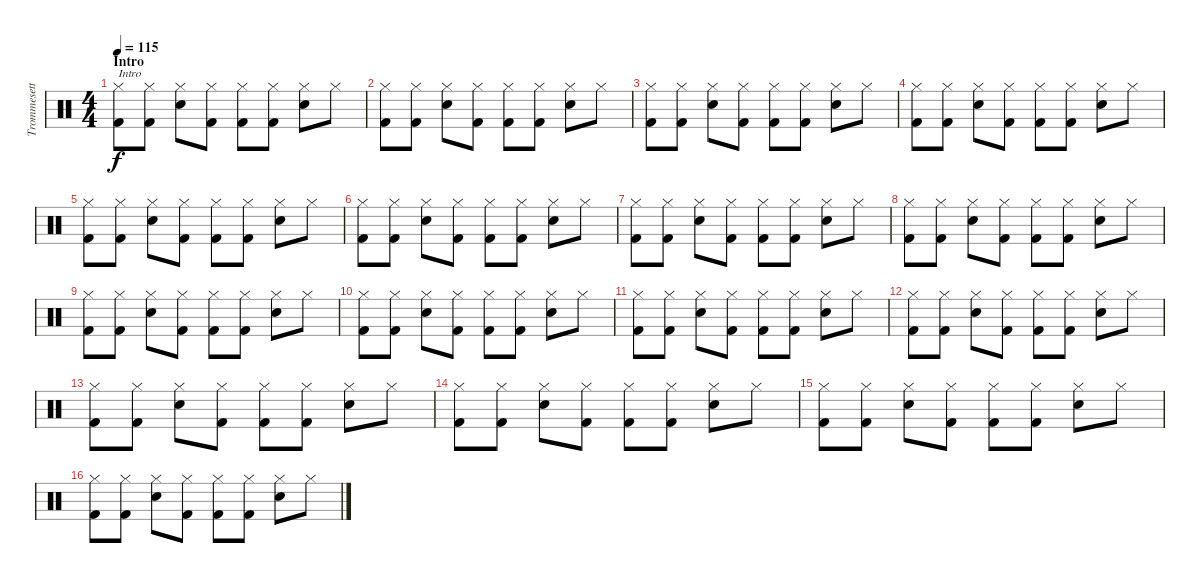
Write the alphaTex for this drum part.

\track ("Trommesett" "Trommesett") {instrument percussion}
\staff {score}
\articulation defaults
\ts (4 4)
\section ("" "Intro")
\tempo 115
\clef neutral
\ks c
("Hi-Hat (closed)" "Kick (hit) 2").8{txt "Intro" dy f} ("Hi-Hat (closed)" "Kick (hit) 2").8 ("Hi-Hat (closed)" "Electric Snare (hit)").8 ("Hi-Hat (closed)" "Kick (hit) 2").8 ("Hi-Hat (closed)" "Kick (hit) 2").8 ("Hi-Hat (closed)" "Kick (hit) 2").8 ("Hi-Hat (closed)" "Electric Snare (hit)").8 "Hi-Hat (closed)".8 |
("Hi-Hat (closed)" "Kick (hit) 2").8 ("Hi-Hat (closed)" "Kick (hit) 2").8 ("Hi-Hat (closed)" "Electric Snare (hit)").8 ("Hi-Hat (closed)" "Kick (hit) 2").8 ("Hi-Hat (closed)" "Kick (hit) 2").8 ("Hi-Hat (closed)" "Kick (hit) 2").8 ("Hi-Hat (closed)" "Electric Snare (hit)").8 "Hi-Hat (closed)".8 |
("Hi-Hat (closed)" "Kick (hit) 2").8 ("Hi-Hat (closed)" "Kick (hit) 2").8 ("Hi-Hat (closed)" "Electric Snare (hit)").8 ("Hi-Hat (closed)" "Kick (hit) 2").8 ("Hi-Hat (closed)" "Kick (hit) 2").8 ("Hi-Hat (closed)" "Kick (hit) 2").8 ("Hi-Hat (closed)" "Electric Snare (hit)").8 "Hi-Hat (closed)".8 |
("Hi-Hat (closed)" "Kick (hit) 2").8 ("Hi-Hat (closed)" "Kick (hit) 2").8 ("Hi-Hat (closed)" "Electric Snare (hit)").8 ("Hi-Hat (closed)" "Kick (hit) 2").8 ("Hi-Hat (closed)" "Kick (hit) 2").8 ("Hi-Hat (closed)" "Kick (hit) 2").8 ("Hi-Hat (closed)" "Electric Snare (hit)").8 "Hi-Hat (closed)".8 |
("Hi-Hat (closed)" "Kick (hit) 2").8 ("Hi-Hat (closed)" "Kick (hit) 2").8 ("Hi-Hat (closed)" "Electric Snare (hit)").8 ("Hi-Hat (closed)" "Kick (hit) 2").8 ("Hi-Hat (closed)" "Kick (hit) 2").8 ("Hi-Hat (closed)" "Kick (hit) 2").8 ("Hi-Hat (closed)" "Electric Snare (hit)").8 "Hi-Hat (closed)".8 |
("Hi-Hat (closed)" "Kick (hit) 2").8 ("Hi-Hat (closed)" "Kick (hit) 2").8 ("Hi-Hat (closed)" "Electric Snare (hit)").8 ("Hi-Hat (closed)" "Kick (hit) 2").8 ("Hi-Hat (closed)" "Kick (hit) 2").8 ("Hi-Hat (closed)" "Kick (hit) 2").8 ("Hi-Hat (closed)" "Electric Snare (hit)").8 "Hi-Hat (closed)".8 |
("Hi-Hat (closed)" "Kick (hit) 2").8 ("Hi-Hat (closed)" "Kick (hit) 2").8 ("Hi-Hat (closed)" "Electric Snare (hit)").8 ("Hi-Hat (closed)" "Kick (hit) 2").8 ("Hi-Hat (closed)" "Kick (hit) 2").8 ("Hi-Hat (closed)" "Kick (hit) 2").8 ("Hi-Hat (closed)" "Electric Snare (hit)").8 "Hi-Hat (closed)".8 |
("Hi-Hat (closed)" "Kick (hit) 2").8 ("Hi-Hat (closed)" "Kick (hit) 2").8 ("Hi-Hat (closed)" "Electric Snare (hit)").8 ("Hi-Hat (closed)" "Kick (hit) 2").8 ("Hi-Hat (closed)" "Kick (hit) 2").8 ("Hi-Hat (closed)" "Kick (hit) 2").8 ("Hi-Hat (closed)" "Electric Snare (hit)").8 "Hi-Hat (closed)".8 |
("Hi-Hat (closed)" "Kick (hit) 2").8 ("Hi-Hat (closed)" "Kick (hit) 2").8 ("Hi-Hat (closed)" "Electric Snare (hit)").8 ("Hi-Hat (closed)" "Kick (hit) 2").8 ("Hi-Hat (closed)" "Kick (hit) 2").8 ("Hi-Hat (closed)" "Kick (hit) 2").8 ("Hi-Hat (closed)" "Electric Snare (hit)").8 "Hi-Hat (closed)".8 |
("Hi-Hat (closed)" "Kick (hit) 2").8 ("Hi-Hat (closed)" "Kick (hit) 2").8 ("Hi-Hat (closed)" "Electric Snare (hit)").8 ("Hi-Hat (closed)" "Kick (hit) 2").8 ("Hi-Hat (closed)" "Kick (hit) 2").8 ("Hi-Hat (closed)" "Kick (hit) 2").8 ("Hi-Hat (closed)" "Electric Snare (hit)").8 "Hi-Hat (closed)".8 |
("Hi-Hat (closed)" "Kick (hit) 2").8 ("Hi-Hat (closed)" "Kick (hit) 2").8 ("Hi-Hat (closed)" "Electric Snare (hit)").8 ("Hi-Hat (closed)" "Kick (hit) 2").8 ("Hi-Hat (closed)" "Kick (hit) 2").8 ("Hi-Hat (closed)" "Kick (hit) 2").8 ("Hi-Hat (closed)" "Electric Snare (hit)").8 "Hi-Hat (closed)".8 |
("Hi-Hat (closed)" "Kick (hit) 2").8 ("Hi-Hat (closed)" "Kick (hit) 2").8 ("Hi-Hat (closed)" "Electric Snare (hit)").8 ("Hi-Hat (closed)" "Kick (hit) 2").8 ("Hi-Hat (closed)" "Kick (hit) 2").8 ("Hi-Hat (closed)" "Kick (hit) 2").8 ("Hi-Hat (closed)" "Electric Snare (hit)").8 "Hi-Hat (closed)".8 |
("Hi-Hat (closed)" "Kick (hit) 2").8 ("Hi-Hat (closed)" "Kick (hit) 2").8 ("Hi-Hat (closed)" "Electric Snare (hit)").8 ("Hi-Hat (closed)" "Kick (hit) 2").8 ("Hi-Hat (closed)" "Kick (hit) 2").8 ("Hi-Hat (closed)" "Kick (hit) 2").8 ("Hi-Hat (closed)" "Electric Snare (hit)").8 "Hi-Hat (closed)".8 |
("Hi-Hat (closed)" "Kick (hit) 2").8 ("Hi-Hat (closed)" "Kick (hit) 2").8 ("Hi-Hat (closed)" "Electric Snare (hit)").8 ("Hi-Hat (closed)" "Kick (hit) 2").8 ("Hi-Hat (closed)" "Kick (hit) 2").8 ("Hi-Hat (closed)" "Kick (hit) 2").8 ("Hi-Hat (closed)" "Electric Snare (hit)").8 "Hi-Hat (closed)".8 |
("Hi-Hat (closed)" "Kick (hit) 2").8 ("Hi-Hat (closed)" "Kick (hit) 2").8 ("Hi-Hat (closed)" "Electric Snare (hit)").8 ("Hi-Hat (closed)" "Kick (hit) 2").8 ("Hi-Hat (closed)" "Kick (hit) 2").8 ("Hi-Hat (closed)" "Kick (hit) 2").8 ("Hi-Hat (closed)" "Electric Snare (hit)").8 "Hi-Hat (closed)".8 |
("Hi-Hat (closed)" "Kick (hit) 2").8 ("Hi-Hat (closed)" "Kick (hit) 2").8 ("Hi-Hat (closed)" "Electric Snare (hit)").8 ("Hi-Hat (closed)" "Kick (hit) 2").8 ("Hi-Hat (closed)" "Kick (hit) 2").8 ("Hi-Hat (closed)" "Kick (hit) 2").8 ("Hi-Hat (closed)" "Electric Snare (hit)").8 "Hi-Hat (closed)".8
